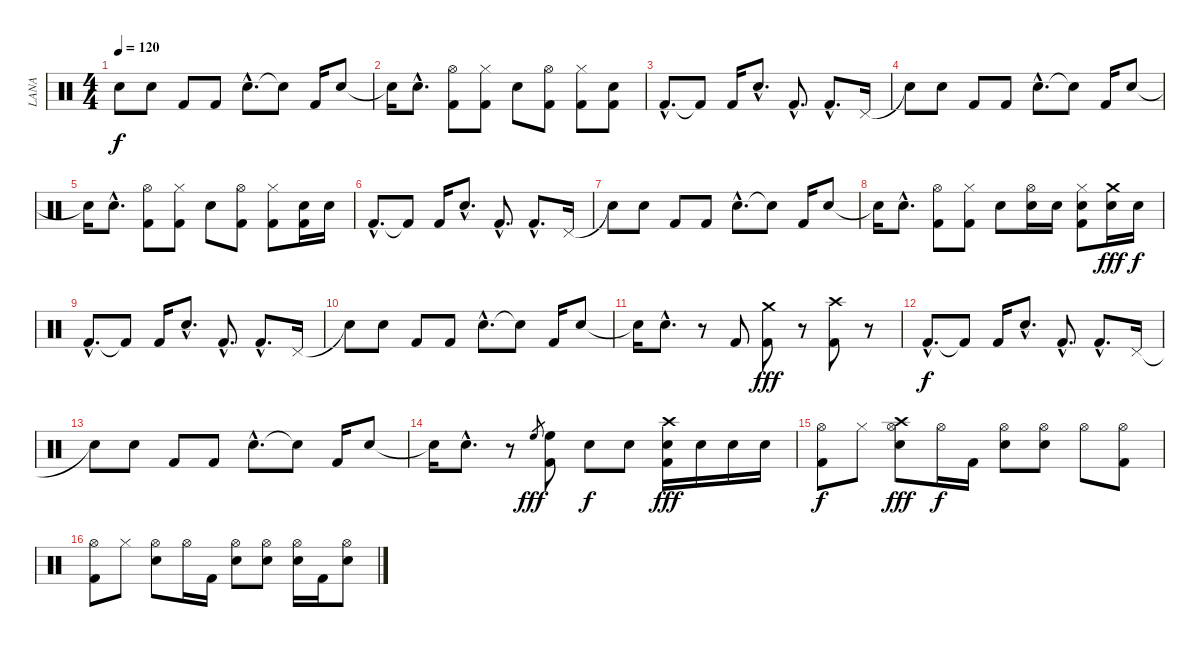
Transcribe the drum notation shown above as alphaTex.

\track ("LANA" "LANA") {instrument percussion}
\staff {score}
\articulation defaults
\ts (4 4)
\tempo 120
\clef neutral
\ks c "Snare (hit)"{t}.8{dy f} "Electric Snare (hit)".8 "Kick (hit) 2".8 "Kick (hit) 2".8 "Electric Snare (hit)"{hac}.8{d} "Snare (hit)"{t}.8 "Kick (hit) 2".16 "Electric Snare (hit)".8
|
"Snare (hit)"{t}.16 "Electric Snare (hit)"{hac}.8{d} ("Hi-Hat (open)" "Kick (hit) 2").8 ("Hi-Hat (closed)" "Kick (hit) 2").8 "Electric Snare (hit)".8 ("Hi-Hat (open)" "Kick (hit) 2").8 ("Hi-Hat (closed)" "Kick (hit) 2").8 ("Electric Snare (hit)" "Kick (hit) 2").8 |
"Kick (hit) 2"{hac}.8{d} "Kick (hit) 2"{t}.8 "Kick (hit) 2".16 "Electric Snare (hit)"{hac}.8{d} "Kick (hit) 2"{hac}.8{d} "Kick (hit) 2"{hac}.8{d} "Pedal Hi-Hat (hit)".16 |
"Snare (hit)"{t}.8 "Electric Snare (hit)".8 "Kick (hit) 2".8 "Kick (hit) 2".8 "Electric Snare (hit)"{hac}.8{d} "Snare (hit)"{t}.8 "Kick (hit) 2".16 "Electric Snare (hit)".8 |
"Snare (hit)"{t}.16 "Electric Snare (hit)"{hac}.8{d} ("Hi-Hat (open)" "Kick (hit) 2").8 ("Hi-Hat (closed)" "Kick (hit) 2").8 "Electric Snare (hit)".8 ("Hi-Hat (open)" "Kick (hit) 2").8 ("Hi-Hat (closed)" "Kick (hit) 2").8 ("Electric Snare (hit)" "Kick (hit) 2").16 "Electric Snare (hit)".16 |
"Kick (hit) 2"{hac}.8{d} "Kick (hit) 2"{t}.8 "Kick (hit) 2".16 "Electric Snare (hit)"{hac}.8{d} "Kick (hit) 2"{hac}.8{d} "Kick (hit) 2"{hac}.8{d} "Pedal Hi-Hat (hit)".16 |
"Snare (hit)"{t}.8 "Electric Snare (hit)".8 "Kick (hit) 2".8 "Kick (hit) 2".8 "Electric Snare (hit)"{hac}.8{d} "Snare (hit)"{t}.8 "Kick (hit) 2".16 "Electric Snare (hit)".8 |
"Snare (hit)"{t}.16 "Electric Snare (hit)"{hac}.8{d} ("Hi-Hat (open)" "Kick (hit) 2").8 ("Hi-Hat (closed)" "Kick (hit) 2").8 "Electric Snare (hit)".8 ("Hi-Hat (open)" "Electric Snare (hit)").16 "Electric Snare (hit)".16 ("Hi-Hat (closed)" "Electric Snare (hit)" "Kick (hit) 2").8 ("Crash medium (hit)" "Electric Snare (hit)").16{dy fff} "Electric Snare (hit)".16{dy f} |
"Kick (hit) 2"{hac}.8{d} "Kick (hit) 2"{t}.8 "Kick (hit) 2".16 "Electric Snare (hit)"{hac}.8{d} "Kick (hit) 2"{hac}.8{d} "Kick (hit) 2"{hac}.8{d} "Pedal Hi-Hat (hit)".16 |
"Snare (hit)"{t}.8 "Electric Snare (hit)".8 "Kick (hit) 2".8 "Kick (hit) 2".8 "Electric Snare (hit)"{hac}.8{d} "Snare (hit)"{t}.8 "Kick (hit) 2".16 "Electric Snare (hit)".8 |
"Snare (hit)"{t}.16 "Electric Snare (hit)"{hac}.8{d} r.8 "Kick (hit) 2".8 ("Crash medium (hit)" "Kick (hit) 2").8{dy fff} r.8 ("Crash high (hit)" "Kick (hit) 2").8 r.8 |
"Kick (hit) 2"{hac}.8{d dy f} "Kick (hit) 2"{t}.8 "Kick (hit) 2".16 "Electric Snare (hit)"{hac}.8{d} "Kick (hit) 2"{hac}.8{d} "Kick (hit) 2"{hac}.8{d} "Pedal Hi-Hat (hit)".16 |
"Snare (hit)"{t}.8 "Electric Snare (hit)".8 "Kick (hit) 2".8 "Kick (hit) 2".8 "Electric Snare (hit)"{hac}.8{d} "Snare (hit)"{t}.8 "Kick (hit) 2".16 "Electric Snare (hit)".8 |
"Snare (hit)"{t}.16 "Electric Snare (hit)"{hac}.8{d} r.8 "High Floor Tom (hit)".8{gr dy fff} ("High Floor Tom (hit)" "Kick (hit) 2").8 "Electric Snare (hit)".8{dy f} "Electric Snare (hit)".8 ("Crash high (hit)" "Electric Snare (hit)" "Kick (hit) 2").16{dy fff} "Electric Snare (hit)".16 "Electric Snare (hit)".16 "Electric Snare (hit)".16 |
("Hi-Hat (open)" "Kick (hit) 2").8{dy f} "Hi-Hat (closed)".8 ("Crash high (hit)" "Hi-Hat (open)" "Electric Snare (hit)").8{dy fff} "Hi-Hat (open)".16{dy f} "Kick (hit) 2".16 ("Hi-Hat (open)" "Electric Snare (hit)").8 ("Hi-Hat (open)" "Electric Snare (hit)").8 "Hi-Hat (open)".8 ("Hi-Hat (open)" "Kick (hit) 2").8 |
("Hi-Hat (open)" "Kick (hit) 2").8 "Hi-Hat (closed)".8 ("Hi-Hat (open)" "Electric Snare (hit)").8 "Hi-Hat (open)".16 "Kick (hit) 2".16 ("Hi-Hat (open)" "Electric Snare (hit)").8 ("Hi-Hat (open)" "Electric Snare (hit)").8 ("Hi-Hat (open)" "Electric Snare (hit)").16 "Kick (hit) 2".16 ("Hi-Hat (open)" "Electric Snare (hit)").8
